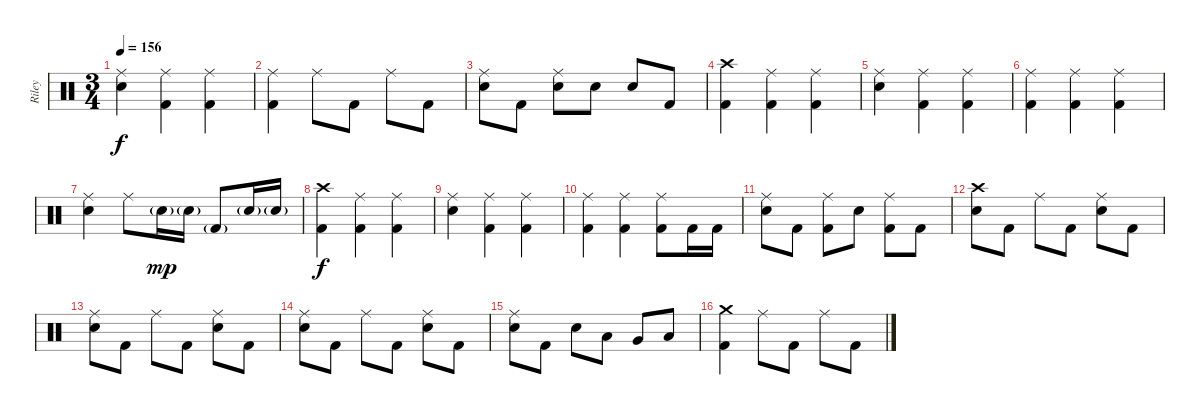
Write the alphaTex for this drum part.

\track ("Riley" "Riley") {instrument percussion}
\staff {score}
\articulation defaults
\ts (3 4)
\tempo 156
\clef neutral
\ks c
("Ride (middle)" "Electric Snare (hit)").4{dy f} ("Ride (middle)" "Kick (hit) 2").4 ("Ride (middle)" "Kick (hit) 2").4 |
("Ride (middle)" "Kick (hit) 2").4 "Ride (middle)".8 "Kick (hit) 2".8 "Ride (middle)".8 "Kick (hit) 2".8 |
("Ride (middle)" "Electric Snare (hit)").8 "Kick (hit) 2".8 ("Ride (middle)" "Electric Snare (hit)").8 "Electric Snare (hit)".8 "Electric Snare (hit)".8 "Kick (hit) 2".8 |
("Crash high (hit)" "Kick (hit) 2").4 ("Ride (middle)" "Kick (hit) 2").4 ("Ride (middle)" "Kick (hit) 2").4 |
("Ride (middle)" "Electric Snare (hit)").4 ("Ride (middle)" "Kick (hit) 2").4 ("Ride (middle)" "Kick (hit) 2").4 |
("Ride (middle)" "Kick (hit) 2").4 ("Ride (middle)" "Kick (hit) 2").4 ("Ride (middle)" "Kick (hit) 2").4 |
("Ride (middle)" "Electric Snare (hit)").4 "Ride (middle)".8 "Electric Snare (hit)"{g}.16{dy mp} "Electric Snare (hit)"{g}.16 "Kick (hit) 2"{g}.8 "Electric Snare (hit)"{g}.16 "Electric Snare (hit)"{g}.16 |
("Crash high (hit)" "Kick (hit) 2").4{dy f} ("Ride (middle)" "Kick (hit) 2").4 ("Ride (middle)" "Kick (hit) 2").4 |
("Ride (middle)" "Electric Snare (hit)").4 ("Ride (middle)" "Kick (hit) 2").4 ("Ride (middle)" "Kick (hit) 2").4 |
("Ride (middle)" "Kick (hit) 2").4 ("Ride (middle)" "Kick (hit) 2").4 ("Ride (middle)" "Kick (hit) 2").8 "Kick (hit) 2".16 "Kick (hit) 2".16 |
("Ride (middle)" "Electric Snare (hit)").8 "Kick (hit) 2".8 ("Ride (middle)" "Kick (hit) 2").8 "Electric Snare (hit)".8 ("Ride (middle)" "Kick (hit) 2").8 "Kick (hit) 2".8 |
("Crash high (hit)" "Electric Snare (hit)").8 "Kick (hit) 2".8 "Ride (middle)".8 "Kick (hit) 2".8 ("Ride (middle)" "Electric Snare (hit)").8 "Kick (hit) 2".8 |
("Ride (middle)" "Electric Snare (hit)").8 "Kick (hit) 2".8 "Ride (middle)".8 "Kick (hit) 2".8 ("Ride (middle)" "Electric Snare (hit)").8 "Kick (hit) 2".8 |
("Ride (middle)" "Electric Snare (hit)").8 "Kick (hit) 2".8 "Ride (middle)".8 "Kick (hit) 2".8 ("Ride (middle)" "Electric Snare (hit)").8 "Kick (hit) 2".8 |
("Ride (middle)" "Electric Snare (hit)").8 "Kick (hit) 2".8 "Electric Snare (hit)".8 "Low Tom (hit)".8 "Very Low Tom (hit)".8 "Low Floor Tom (hit)".8 |
("Crash medium (hit)" "Kick (hit) 2").4 "Ride (middle)".8 "Kick (hit) 2".8 "Ride (middle)".8 "Kick (hit) 2".8
